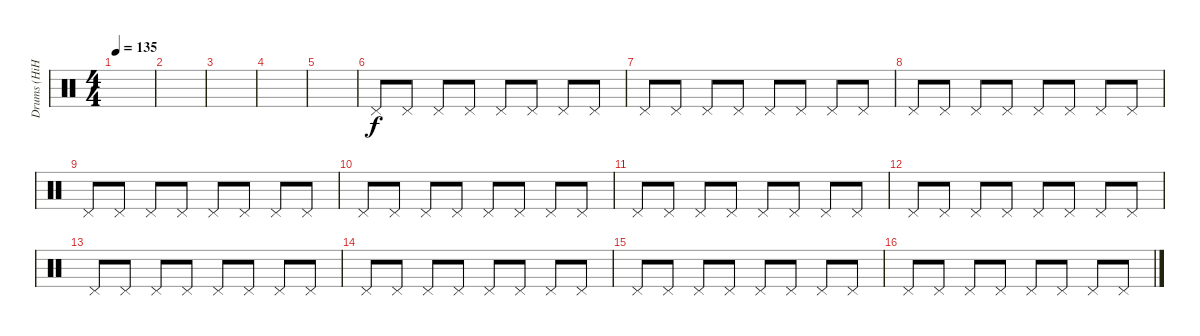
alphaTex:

\track ("Drums (HiHat)" "Drums (HiH") {instrument percussion}
\staff {score}
\articulation defaults
\ts (4 4)
\tempo 135
\clef neutral
\ks c
|
|
|
|
|
"Pedal Hi-Hat (hit)".8 "Pedal Hi-Hat (hit)".8 "Pedal Hi-Hat (hit)".8 "Pedal Hi-Hat (hit)".8 "Pedal Hi-Hat (hit)".8 "Pedal Hi-Hat (hit)".8 "Pedal Hi-Hat (hit)".8 "Pedal Hi-Hat (hit)".8 |
"Pedal Hi-Hat (hit)".8 "Pedal Hi-Hat (hit)".8 "Pedal Hi-Hat (hit)".8 "Pedal Hi-Hat (hit)".8 "Pedal Hi-Hat (hit)".8 "Pedal Hi-Hat (hit)".8 "Pedal Hi-Hat (hit)".8 "Pedal Hi-Hat (hit)".8 |
"Pedal Hi-Hat (hit)".8 "Pedal Hi-Hat (hit)".8 "Pedal Hi-Hat (hit)".8 "Pedal Hi-Hat (hit)".8 "Pedal Hi-Hat (hit)".8 "Pedal Hi-Hat (hit)".8 "Pedal Hi-Hat (hit)".8 "Pedal Hi-Hat (hit)".8 |
"Pedal Hi-Hat (hit)".8 "Pedal Hi-Hat (hit)".8 "Pedal Hi-Hat (hit)".8 "Pedal Hi-Hat (hit)".8 "Pedal Hi-Hat (hit)".8 "Pedal Hi-Hat (hit)".8 "Pedal Hi-Hat (hit)".8 "Pedal Hi-Hat (hit)".8 |
"Pedal Hi-Hat (hit)".8 "Pedal Hi-Hat (hit)".8 "Pedal Hi-Hat (hit)".8 "Pedal Hi-Hat (hit)".8 "Pedal Hi-Hat (hit)".8 "Pedal Hi-Hat (hit)".8 "Pedal Hi-Hat (hit)".8 "Pedal Hi-Hat (hit)".8 |
"Pedal Hi-Hat (hit)".8 "Pedal Hi-Hat (hit)".8 "Pedal Hi-Hat (hit)".8 "Pedal Hi-Hat (hit)".8 "Pedal Hi-Hat (hit)".8 "Pedal Hi-Hat (hit)".8 "Pedal Hi-Hat (hit)".8 "Pedal Hi-Hat (hit)".8 |
"Pedal Hi-Hat (hit)".8 "Pedal Hi-Hat (hit)".8 "Pedal Hi-Hat (hit)".8 "Pedal Hi-Hat (hit)".8 "Pedal Hi-Hat (hit)".8 "Pedal Hi-Hat (hit)".8 "Pedal Hi-Hat (hit)".8 "Pedal Hi-Hat (hit)".8 |
"Pedal Hi-Hat (hit)".8 "Pedal Hi-Hat (hit)".8 "Pedal Hi-Hat (hit)".8 "Pedal Hi-Hat (hit)".8 "Pedal Hi-Hat (hit)".8 "Pedal Hi-Hat (hit)".8 "Pedal Hi-Hat (hit)".8 "Pedal Hi-Hat (hit)".8 |
"Pedal Hi-Hat (hit)".8 "Pedal Hi-Hat (hit)".8 "Pedal Hi-Hat (hit)".8 "Pedal Hi-Hat (hit)".8 "Pedal Hi-Hat (hit)".8 "Pedal Hi-Hat (hit)".8 "Pedal Hi-Hat (hit)".8 "Pedal Hi-Hat (hit)".8 |
"Pedal Hi-Hat (hit)".8 "Pedal Hi-Hat (hit)".8 "Pedal Hi-Hat (hit)".8 "Pedal Hi-Hat (hit)".8 "Pedal Hi-Hat (hit)".8 "Pedal Hi-Hat (hit)".8 "Pedal Hi-Hat (hit)".8 "Pedal Hi-Hat (hit)".8 |
"Pedal Hi-Hat (hit)".8 "Pedal Hi-Hat (hit)".8 "Pedal Hi-Hat (hit)".8 "Pedal Hi-Hat (hit)".8 "Pedal Hi-Hat (hit)".8 "Pedal Hi-Hat (hit)".8 "Pedal Hi-Hat (hit)".8 "Pedal Hi-Hat (hit)".8
